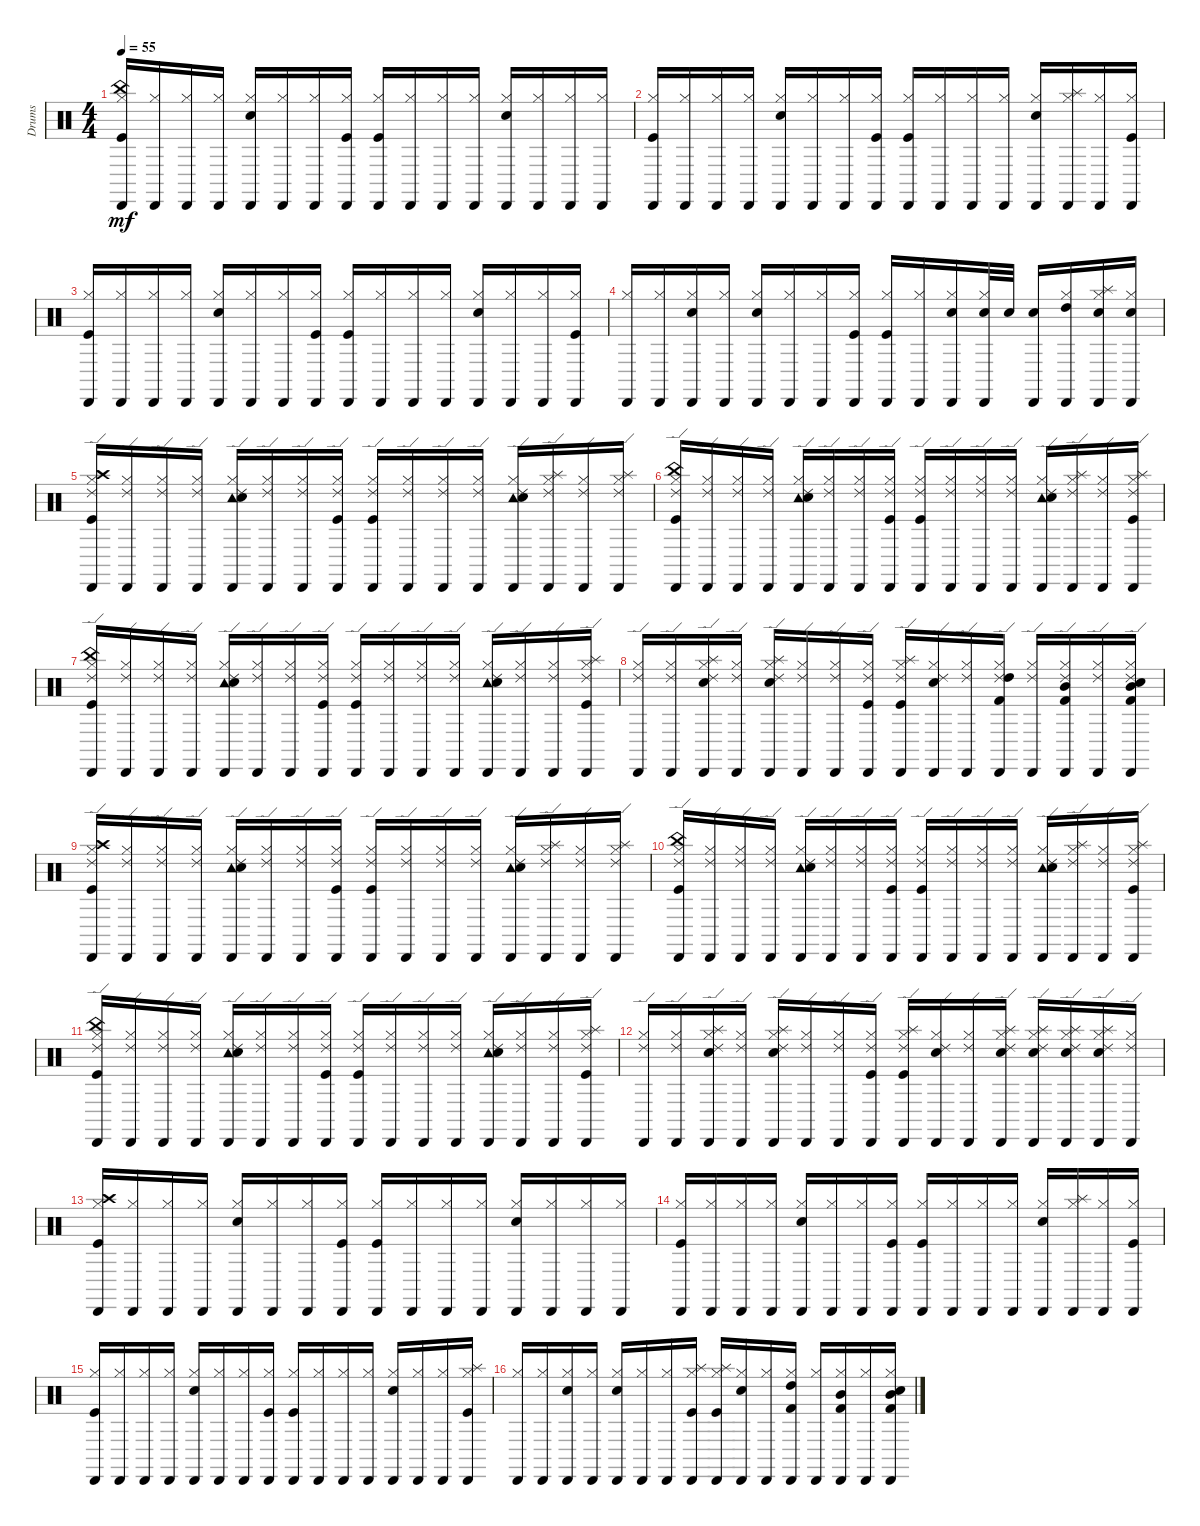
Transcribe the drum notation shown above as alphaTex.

\track ("Drums" "Drums") {instrument percussion}
\staff {score}
\articulation defaults
\ts (4 4)
\tempo 55
\clef neutral
\ks c
("Cabasa (hit)" "Hi-Hat (closed)" "China (hit)" "Kick (hit)").16{dy mf} ("Cabasa (hit)" "Hi-Hat (closed)").16 ("Cabasa (hit)" "Hi-Hat (closed)").16 ("Cabasa (hit)" "Hi-Hat (closed)").16 ("Cabasa (hit)" "Hi-Hat (closed)" "Snare (hit) 2").16 ("Cabasa (hit)" "Hi-Hat (closed)").16 ("Cabasa (hit)" "Hi-Hat (closed)").16 ("Cabasa (hit)" "Hi-Hat (closed)" "Kick (hit)").16 ("Cabasa (hit)" "Hi-Hat (closed)" "Kick (hit)").16 ("Cabasa (hit)" "Hi-Hat (closed)").16 ("Cabasa (hit)" "Hi-Hat (closed)").16 ("Cabasa (hit)" "Hi-Hat (closed)").16 ("Cabasa (hit)" "Hi-Hat (closed)" "Snare (hit) 2").16 ("Cabasa (hit)" "Hi-Hat (closed)").16 ("Cabasa (hit)" "Hi-Hat (closed)").16 ("Cabasa (hit)" "Hi-Hat (closed)").16 |
("Cabasa (hit)" "Hi-Hat (closed)" "Kick (hit)").16 ("Cabasa (hit)" "Hi-Hat (closed)").16 ("Cabasa (hit)" "Hi-Hat (closed)").16 ("Cabasa (hit)" "Hi-Hat (closed)").16 ("Cabasa (hit)" "Hi-Hat (closed)" "Snare (hit) 2").16 ("Cabasa (hit)" "Hi-Hat (closed)").16 ("Cabasa (hit)" "Hi-Hat (closed)").16 ("Cabasa (hit)" "Hi-Hat (closed)" "Kick (hit)").16 ("Cabasa (hit)" "Hi-Hat (closed)" "Kick (hit)").16 ("Cabasa (hit)" "Hi-Hat (closed)").16 ("Cabasa (hit)" "Hi-Hat (closed)").16 ("Cabasa (hit)" "Hi-Hat (closed)").16 ("Cabasa (hit)" "Hi-Hat (closed)" "Snare (hit) 2").16 ("Cabasa (hit)" "Hi-Hat (closed)" "Splash (hit)").16 ("Cabasa (hit)" "Hi-Hat (closed)").16 ("Cabasa (hit)" "Hi-Hat (closed)" "Kick (hit)").16 |
("Cabasa (hit)" "Hi-Hat (closed)" "Kick (hit)").16 ("Cabasa (hit)" "Hi-Hat (closed)").16 ("Cabasa (hit)" "Hi-Hat (closed)").16 ("Cabasa (hit)" "Hi-Hat (closed)").16 ("Cabasa (hit)" "Hi-Hat (closed)" "Snare (hit) 2").16 ("Cabasa (hit)" "Hi-Hat (closed)").16 ("Cabasa (hit)" "Hi-Hat (closed)").16 ("Cabasa (hit)" "Hi-Hat (closed)" "Kick (hit)").16 ("Cabasa (hit)" "Hi-Hat (closed)" "Kick (hit)").16 ("Cabasa (hit)" "Hi-Hat (closed)").16 ("Cabasa (hit)" "Hi-Hat (closed)").16 ("Cabasa (hit)" "Hi-Hat (closed)").16 ("Cabasa (hit)" "Hi-Hat (closed)" "Snare (hit) 2").16 ("Cabasa (hit)" "Hi-Hat (closed)").16 ("Cabasa (hit)" "Hi-Hat (closed)").16 ("Cabasa (hit)" "Hi-Hat (closed)" "Kick (hit)").16 |
("Cabasa (hit)" "Hi-Hat (closed)").16 ("Cabasa (hit)" "Hi-Hat (closed)").16 ("Cabasa (hit)" "Hi-Hat (closed)" "Snare (hit) 2").16 ("Cabasa (hit)" "Hi-Hat (closed)").16 ("Cabasa (hit)" "Hi-Hat (closed)" "Snare (hit) 2").16 ("Cabasa (hit)" "Hi-Hat (closed)").16 ("Cabasa (hit)" "Hi-Hat (closed)").16 ("Cabasa (hit)" "Hi-Hat (closed)" "Kick (hit)").16 ("Cabasa (hit)" "Hi-Hat (closed)" "Kick (hit)").16 ("Cabasa (hit)" "Hi-Hat (closed)").16 ("Cabasa (hit)" "Hi-Hat (closed)" "Snare (hit) 2").16 ("Cabasa (hit)" "Hi-Hat (closed)" "Snare (hit) 2").32 "Snare (hit) 2".32 ("Cabasa (hit)" "Snare (hit) 2").16 ("Cabasa (hit)" "Hi-Hat (closed)" "High Tom (hit)").16 ("Cabasa (hit)" "Hi-Hat (closed)" "Splash (hit)" "Snare (hit) 2").16 ("Cabasa (hit)" "Hi-Hat (closed)" "Snare (hit) 2").16 |
("Cabasa (hit)" "Hi-Hat (closed)" "Ride (edge) 2" "Crash high (hit)" "Kick (hit)").16 ("Cabasa (hit)" "Hi-Hat (closed)" "Ride (edge) 2").16 ("Cabasa (hit)" "Hi-Hat (closed)" "Ride (edge) 2").16 ("Cabasa (hit)" "Hi-Hat (closed)" "Ride (edge) 2").16 ("Cabasa (hit)" "Hi-Hat (closed)" "Ride (edge) 2" "Tambourine (hit)" "Snare (hit) 2").16 ("Cabasa (hit)" "Hi-Hat (closed)" "Ride (edge) 2").16 ("Cabasa (hit)" "Hi-Hat (closed)" "Ride (edge) 2").16 ("Cabasa (hit)" "Hi-Hat (closed)" "Ride (edge) 2" "Kick (hit)").16 ("Cabasa (hit)" "Hi-Hat (closed)" "Ride (edge) 2" "Kick (hit)").16 ("Cabasa (hit)" "Hi-Hat (closed)" "Ride (edge) 2").16 ("Cabasa (hit)" "Hi-Hat (closed)" "Ride (edge) 2").16 ("Cabasa (hit)" "Hi-Hat (closed)" "Ride (edge) 2").16 ("Cabasa (hit)" "Hi-Hat (closed)" "Ride (edge) 2" "Tambourine (hit)" "Snare (hit) 2").16 ("Cabasa (hit)" "Hi-Hat (closed)" "Ride (edge) 2" "Splash (hit)").16 ("Cabasa (hit)" "Hi-Hat (closed)" "Ride (edge) 2").16 ("Cabasa (hit)" "Hi-Hat (closed)" "Ride (edge) 2" "Splash (hit)").16 |
("Cabasa (hit)" "Hi-Hat (closed)" "Ride (edge) 2" "China (hit)" "Kick (hit)").16 ("Cabasa (hit)" "Hi-Hat (closed)" "Ride (edge) 2").16 ("Cabasa (hit)" "Hi-Hat (closed)" "Ride (edge) 2").16 ("Cabasa (hit)" "Hi-Hat (closed)" "Ride (edge) 2").16 ("Cabasa (hit)" "Hi-Hat (closed)" "Ride (edge) 2" "Tambourine (hit)" "Snare (hit) 2").16 ("Cabasa (hit)" "Hi-Hat (closed)" "Ride (edge) 2").16 ("Cabasa (hit)" "Hi-Hat (closed)" "Ride (edge) 2").16 ("Cabasa (hit)" "Hi-Hat (closed)" "Ride (edge) 2" "Kick (hit)").16 ("Cabasa (hit)" "Hi-Hat (closed)" "Ride (edge) 2" "Kick (hit)").16 ("Cabasa (hit)" "Hi-Hat (closed)" "Ride (edge) 2").16 ("Cabasa (hit)" "Hi-Hat (closed)" "Ride (edge) 2").16 ("Cabasa (hit)" "Hi-Hat (closed)" "Ride (edge) 2").16 ("Cabasa (hit)" "Hi-Hat (closed)" "Ride (edge) 2" "Tambourine (hit)" "Snare (hit) 2").16 ("Cabasa (hit)" "Hi-Hat (closed)" "Ride (edge) 2" "Splash (hit)").16 ("Cabasa (hit)" "Hi-Hat (closed)" "Ride (edge) 2").16 ("Cabasa (hit)" "Hi-Hat (closed)" "Ride (edge) 2" "Splash (hit)" "Kick (hit)").16 |
("Cabasa (hit)" "Hi-Hat (closed)" "Ride (edge) 2" "China (hit)" "Kick (hit)").16 ("Cabasa (hit)" "Hi-Hat (closed)" "Ride (edge) 2").16 ("Cabasa (hit)" "Hi-Hat (closed)" "Ride (edge) 2").16 ("Cabasa (hit)" "Hi-Hat (closed)" "Ride (edge) 2").16 ("Cabasa (hit)" "Hi-Hat (closed)" "Ride (edge) 2" "Tambourine (hit)" "Snare (hit) 2").16 ("Cabasa (hit)" "Hi-Hat (closed)" "Ride (edge) 2").16 ("Cabasa (hit)" "Hi-Hat (closed)" "Ride (edge) 2").16 ("Cabasa (hit)" "Hi-Hat (closed)" "Ride (edge) 2" "Kick (hit)").16 ("Cabasa (hit)" "Hi-Hat (closed)" "Ride (edge) 2" "Kick (hit)").16 ("Cabasa (hit)" "Hi-Hat (closed)" "Ride (edge) 2").16 ("Cabasa (hit)" "Hi-Hat (closed)" "Ride (edge) 2").16 ("Cabasa (hit)" "Hi-Hat (closed)" "Ride (edge) 2").16 ("Cabasa (hit)" "Hi-Hat (closed)" "Ride (edge) 2" "Tambourine (hit)" "Snare (hit) 2").16 ("Cabasa (hit)" "Hi-Hat (closed)" "Ride (edge) 2").16 ("Cabasa (hit)" "Hi-Hat (closed)" "Ride (edge) 2").16 ("Cabasa (hit)" "Hi-Hat (closed)" "Ride (edge) 2" "Splash (hit)" "Kick (hit)").16 |
("Cabasa (hit)" "Hi-Hat (closed)" "Ride (edge) 2").16 ("Cabasa (hit)" "Hi-Hat (closed)" "Ride (edge) 2").16 ("Cabasa (hit)" "Hi-Hat (closed)" "Ride (edge) 2" "Splash (hit)" "Snare (hit) 2").16 ("Cabasa (hit)" "Hi-Hat (closed)" "Ride (edge) 2").16 ("Cabasa (hit)" "Hi-Hat (closed)" "Ride (edge) 2" "Splash (hit)" "Snare (hit) 2").16 ("Cabasa (hit)" "Hi-Hat (closed)" "Ride (edge) 2").16 ("Cabasa (hit)" "Hi-Hat (closed)" "Ride (edge) 2").16 ("Cabasa (hit)" "Hi-Hat (closed)" "Ride (edge) 2" "Kick (hit)").16 ("Cabasa (hit)" "Hi-Hat (closed)" "Ride (edge) 2" "Splash (hit)" "Kick (hit)").16 ("Cabasa (hit)" "Hi-Hat (closed)" "Ride (edge) 2" "Electric Snare (hit)").16 ("Cabasa (hit)" "Hi-Hat (closed)" "Ride (edge) 2").16 ("Cabasa (hit)" "Hi-Hat (closed)" "Ride (edge) 2" "High Tom (hit)" "Kick (hit) 2").16 ("Cabasa (hit)" "Hi-Hat (closed)" "Ride (edge) 2").16 ("Cabasa (hit)" "Hi-Hat (closed)" "Ride (edge) 2" "Mid Tom (hit)" "Kick (hit) 2").16 ("Cabasa (hit)" "Hi-Hat (closed)" "Ride (edge) 2").16 ("Cabasa (hit)" "Hi-Hat (closed)" "Ride (edge) 2" "Mid Tom (hit)" "Electric Snare (hit)" "Kick (hit) 2").16 |
("Cabasa (hit)" "Hi-Hat (closed)" "Ride (edge) 2" "Crash high (hit)" "Kick (hit)").16 ("Cabasa (hit)" "Hi-Hat (closed)" "Ride (edge) 2").16 ("Cabasa (hit)" "Hi-Hat (closed)" "Ride (edge) 2").16 ("Cabasa (hit)" "Hi-Hat (closed)" "Ride (edge) 2").16 ("Cabasa (hit)" "Hi-Hat (closed)" "Ride (edge) 2" "Tambourine (hit)" "Snare (hit) 2").16 ("Cabasa (hit)" "Hi-Hat (closed)" "Ride (edge) 2").16 ("Cabasa (hit)" "Hi-Hat (closed)" "Ride (edge) 2").16 ("Cabasa (hit)" "Hi-Hat (closed)" "Ride (edge) 2" "Kick (hit)").16 ("Cabasa (hit)" "Hi-Hat (closed)" "Ride (edge) 2" "Kick (hit)").16 ("Cabasa (hit)" "Hi-Hat (closed)" "Ride (edge) 2").16 ("Cabasa (hit)" "Hi-Hat (closed)" "Ride (edge) 2").16 ("Cabasa (hit)" "Hi-Hat (closed)" "Ride (edge) 2").16 ("Cabasa (hit)" "Hi-Hat (closed)" "Ride (edge) 2" "Tambourine (hit)" "Snare (hit) 2").16 ("Cabasa (hit)" "Hi-Hat (closed)" "Ride (edge) 2" "Splash (hit)").16 ("Cabasa (hit)" "Hi-Hat (closed)" "Ride (edge) 2").16 ("Cabasa (hit)" "Hi-Hat (closed)" "Ride (edge) 2" "Splash (hit)").16 |
("Cabasa (hit)" "Hi-Hat (closed)" "Ride (edge) 2" "China (hit)" "Kick (hit)").16 ("Cabasa (hit)" "Hi-Hat (closed)" "Ride (edge) 2").16 ("Cabasa (hit)" "Hi-Hat (closed)" "Ride (edge) 2").16 ("Cabasa (hit)" "Hi-Hat (closed)" "Ride (edge) 2").16 ("Cabasa (hit)" "Hi-Hat (closed)" "Ride (edge) 2" "Tambourine (hit)" "Snare (hit) 2").16 ("Cabasa (hit)" "Hi-Hat (closed)" "Ride (edge) 2").16 ("Cabasa (hit)" "Hi-Hat (closed)" "Ride (edge) 2").16 ("Cabasa (hit)" "Hi-Hat (closed)" "Ride (edge) 2" "Kick (hit)").16 ("Cabasa (hit)" "Hi-Hat (closed)" "Ride (edge) 2" "Kick (hit)").16 ("Cabasa (hit)" "Hi-Hat (closed)" "Ride (edge) 2").16 ("Cabasa (hit)" "Hi-Hat (closed)" "Ride (edge) 2").16 ("Cabasa (hit)" "Hi-Hat (closed)" "Ride (edge) 2").16 ("Cabasa (hit)" "Hi-Hat (closed)" "Ride (edge) 2" "Tambourine (hit)" "Snare (hit) 2").16 ("Cabasa (hit)" "Hi-Hat (closed)" "Ride (edge) 2" "Splash (hit)").16 ("Cabasa (hit)" "Hi-Hat (closed)" "Ride (edge) 2").16 ("Cabasa (hit)" "Hi-Hat (closed)" "Ride (edge) 2" "Splash (hit)" "Kick (hit)").16 |
("Cabasa (hit)" "Hi-Hat (closed)" "Ride (edge) 2" "China (hit)" "Kick (hit)").16 ("Cabasa (hit)" "Hi-Hat (closed)" "Ride (edge) 2").16 ("Cabasa (hit)" "Hi-Hat (closed)" "Ride (edge) 2").16 ("Cabasa (hit)" "Hi-Hat (closed)" "Ride (edge) 2").16 ("Cabasa (hit)" "Hi-Hat (closed)" "Ride (edge) 2" "Tambourine (hit)" "Snare (hit) 2").16 ("Cabasa (hit)" "Hi-Hat (closed)" "Ride (edge) 2").16 ("Cabasa (hit)" "Hi-Hat (closed)" "Ride (edge) 2").16 ("Cabasa (hit)" "Hi-Hat (closed)" "Ride (edge) 2" "Kick (hit)").16 ("Cabasa (hit)" "Hi-Hat (closed)" "Ride (edge) 2" "Kick (hit)").16 ("Cabasa (hit)" "Hi-Hat (closed)" "Ride (edge) 2").16 ("Cabasa (hit)" "Hi-Hat (closed)" "Ride (edge) 2").16 ("Cabasa (hit)" "Hi-Hat (closed)" "Ride (edge) 2").16 ("Cabasa (hit)" "Hi-Hat (closed)" "Ride (edge) 2" "Tambourine (hit)" "Snare (hit) 2").16 ("Cabasa (hit)" "Hi-Hat (closed)" "Ride (edge) 2").16 ("Cabasa (hit)" "Hi-Hat (closed)" "Ride (edge) 2").16 ("Cabasa (hit)" "Hi-Hat (closed)" "Ride (edge) 2" "Splash (hit)" "Kick (hit)").16 |
("Cabasa (hit)" "Hi-Hat (closed)" "Ride (edge) 2").16 ("Cabasa (hit)" "Hi-Hat (closed)" "Ride (edge) 2").16 ("Cabasa (hit)" "Hi-Hat (closed)" "Ride (edge) 2" "Splash (hit)" "Snare (hit) 2").16 ("Cabasa (hit)" "Hi-Hat (closed)" "Ride (edge) 2").16 ("Cabasa (hit)" "Hi-Hat (closed)" "Ride (edge) 2" "Splash (hit)" "Snare (hit) 2").16 ("Cabasa (hit)" "Hi-Hat (closed)" "Ride (edge) 2").16 ("Cabasa (hit)" "Hi-Hat (closed)" "Ride (edge) 2").16 ("Cabasa (hit)" "Hi-Hat (closed)" "Ride (edge) 2" "Kick (hit)").16 ("Cabasa (hit)" "Hi-Hat (closed)" "Ride (edge) 2" "Splash (hit)" "Kick (hit)").16 ("Cabasa (hit)" "Hi-Hat (closed)" "Ride (edge) 2" "Electric Snare (hit)").16 ("Cabasa (hit)" "Hi-Hat (closed)" "Ride (edge) 2").16 ("Cabasa (hit)" "Hi-Hat (closed)" "Ride (edge) 2" "Splash (hit)" "Electric Snare (hit)").16 ("Cabasa (hit)" "Hi-Hat (closed)" "Ride (edge) 2" "Splash (hit)" "Electric Snare (hit)").16 ("Cabasa (hit)" "Hi-Hat (closed)" "Ride (edge) 2" "Splash (hit)" "Electric Snare (hit)").16 ("Cabasa (hit)" "Hi-Hat (closed)" "Ride (edge) 2" "Splash (hit)" "Electric Snare (hit)").16 ("Cabasa (hit)" "Hi-Hat (closed)" "Ride (edge) 2").16 |
("Cabasa (hit)" "Hi-Hat (closed)" "Crash high (hit)" "Kick (hit)").16 ("Cabasa (hit)" "Hi-Hat (closed)").16 ("Cabasa (hit)" "Hi-Hat (closed)").16 ("Cabasa (hit)" "Hi-Hat (closed)").16 ("Cabasa (hit)" "Hi-Hat (closed)" "Snare (hit) 2").16 ("Cabasa (hit)" "Hi-Hat (closed)").16 ("Cabasa (hit)" "Hi-Hat (closed)").16 ("Cabasa (hit)" "Hi-Hat (closed)" "Kick (hit)").16 ("Cabasa (hit)" "Hi-Hat (closed)" "Kick (hit)").16 ("Cabasa (hit)" "Hi-Hat (closed)").16 ("Cabasa (hit)" "Hi-Hat (closed)").16 ("Cabasa (hit)" "Hi-Hat (closed)").16 ("Cabasa (hit)" "Hi-Hat (closed)" "Snare (hit) 2").16 ("Cabasa (hit)" "Hi-Hat (closed)").16 ("Cabasa (hit)" "Hi-Hat (closed)").16 ("Cabasa (hit)" "Hi-Hat (closed)").16 |
("Cabasa (hit)" "Hi-Hat (closed)" "Kick (hit)").16 ("Cabasa (hit)" "Hi-Hat (closed)").16 ("Cabasa (hit)" "Hi-Hat (closed)").16 ("Cabasa (hit)" "Hi-Hat (closed)").16 ("Cabasa (hit)" "Hi-Hat (closed)" "Snare (hit) 2").16 ("Cabasa (hit)" "Hi-Hat (closed)").16 ("Cabasa (hit)" "Hi-Hat (closed)").16 ("Cabasa (hit)" "Hi-Hat (closed)" "Kick (hit)").16 ("Cabasa (hit)" "Hi-Hat (closed)" "Kick (hit)").16 ("Cabasa (hit)" "Hi-Hat (closed)").16 ("Cabasa (hit)" "Hi-Hat (closed)").16 ("Cabasa (hit)" "Hi-Hat (closed)").16 ("Cabasa (hit)" "Hi-Hat (closed)" "Snare (hit) 2").16 ("Cabasa (hit)" "Hi-Hat (closed)" "Splash (hit)").16 ("Cabasa (hit)" "Hi-Hat (closed)").16 ("Cabasa (hit)" "Hi-Hat (closed)" "Kick (hit)").16 |
("Cabasa (hit)" "Hi-Hat (closed)" "Kick (hit)").16 ("Cabasa (hit)" "Hi-Hat (closed)").16 ("Cabasa (hit)" "Hi-Hat (closed)").16 ("Cabasa (hit)" "Hi-Hat (closed)").16 ("Cabasa (hit)" "Hi-Hat (closed)" "Snare (hit) 2").16 ("Cabasa (hit)" "Hi-Hat (closed)").16 ("Cabasa (hit)" "Hi-Hat (closed)").16 ("Cabasa (hit)" "Hi-Hat (closed)" "Kick (hit)").16 ("Cabasa (hit)" "Hi-Hat (closed)" "Kick (hit)").16 ("Cabasa (hit)" "Hi-Hat (closed)").16 ("Cabasa (hit)" "Hi-Hat (closed)").16 ("Cabasa (hit)" "Hi-Hat (closed)").16 ("Cabasa (hit)" "Hi-Hat (closed)" "Snare (hit) 2").16 ("Cabasa (hit)" "Hi-Hat (closed)").16 ("Cabasa (hit)" "Hi-Hat (closed)").16 ("Cabasa (hit)" "Hi-Hat (closed)" "Splash (hit)" "Kick (hit)").16 |
("Cabasa (hit)" "Hi-Hat (closed)").16 ("Cabasa (hit)" "Hi-Hat (closed)").16 ("Cabasa (hit)" "Hi-Hat (closed)" "Snare (hit) 2").16 ("Cabasa (hit)" "Hi-Hat (closed)").16 ("Cabasa (hit)" "Hi-Hat (closed)" "Snare (hit) 2").16 ("Cabasa (hit)" "Hi-Hat (closed)").16 ("Cabasa (hit)" "Hi-Hat (closed)").16 ("Cabasa (hit)" "Hi-Hat (closed)" "Splash (hit)" "Kick (hit)").16 ("Cabasa (hit)" "Hi-Hat (closed)" "Splash (hit)" "Kick (hit)").16 ("Cabasa (hit)" "Hi-Hat (closed)" "Electric Snare (hit)").16 ("Cabasa (hit)" "Hi-Hat (closed)").16 ("Cabasa (hit)" "Hi-Hat (closed)" "High Tom (hit)" "Kick (hit) 2").16 ("Cabasa (hit)" "Hi-Hat (closed)").16 ("Cabasa (hit)" "Hi-Hat (closed)" "Mid Tom (hit)" "Kick (hit) 2").16 ("Cabasa (hit)" "Hi-Hat (closed)").16 ("Cabasa (hit)" "Hi-Hat (closed)" "Mid Tom (hit)" "Electric Snare (hit)" "Kick (hit) 2").16
